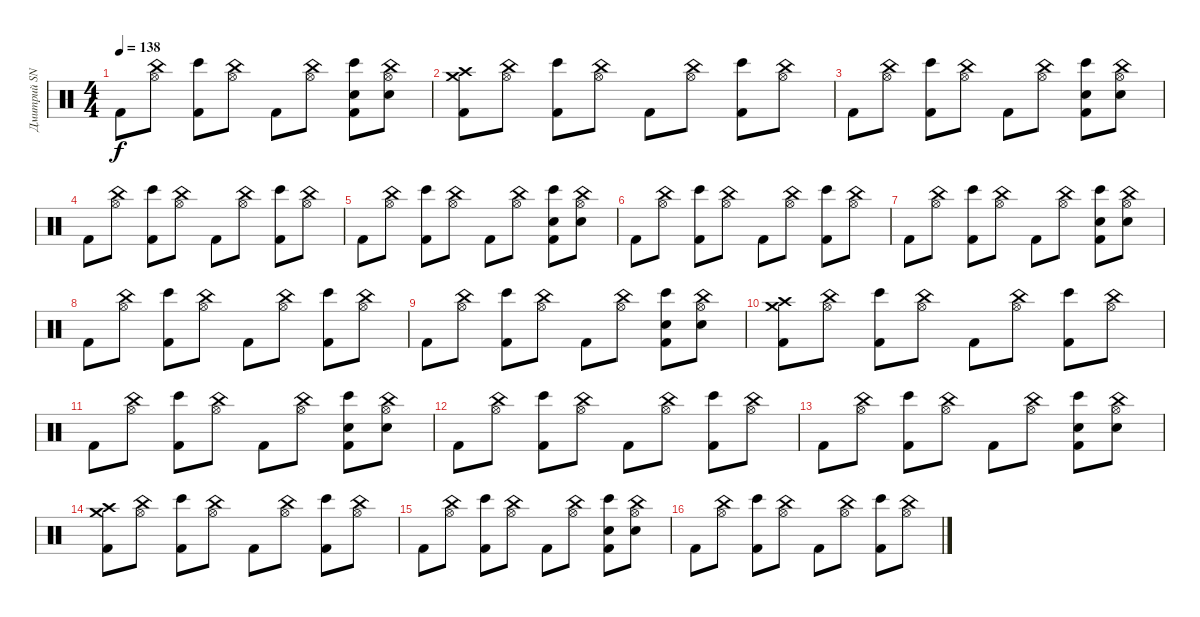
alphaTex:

\track ("Дмитрий SNAKE Хакимов (ударные)" "Дмитрий SN") {instrument percussion}
\staff {score}
\articulation defaults
\ts (4 4)
\tempo 138
\clef neutral
\ks c "Kick (hit) 2".8{dy f}
("China (hit)" "Hi-Hat (open)").8 ("Bongo High (hit)" "Kick (hit) 2").8 ("China (hit)" "Hi-Hat (open)").8 "Kick (hit) 2".8 ("China (hit)" "Hi-Hat (open)").8 ("Bongo High (hit)" "Electric Snare (hit)" "Kick (hit) 2").8 ("China (hit)" "Hi-Hat (open)" "Electric Snare (hit)").8 |
("Crash high (hit)" "Crash medium (hit)" "Kick (hit) 2").8 ("China (hit)" "Hi-Hat (open)").8 ("Bongo High (hit)" "Kick (hit) 2").8 ("China (hit)" "Hi-Hat (open)").8 "Kick (hit) 2".8 ("China (hit)" "Hi-Hat (open)").8 ("Bongo High (hit)" "Kick (hit) 2").8 ("China (hit)" "Hi-Hat (open)").8 |
"Kick (hit) 2".8 ("China (hit)" "Hi-Hat (open)").8 ("Bongo High (hit)" "Kick (hit) 2").8 ("China (hit)" "Hi-Hat (open)").8 "Kick (hit) 2".8 ("China (hit)" "Hi-Hat (open)").8 ("Bongo High (hit)" "Electric Snare (hit)" "Kick (hit) 2").8 ("China (hit)" "Hi-Hat (open)" "Electric Snare (hit)").8 |
"Kick (hit) 2".8 ("China (hit)" "Hi-Hat (open)").8 ("Bongo High (hit)" "Kick (hit) 2").8 ("China (hit)" "Hi-Hat (open)").8 "Kick (hit) 2".8 ("China (hit)" "Hi-Hat (open)").8 ("Bongo High (hit)" "Kick (hit) 2").8 ("China (hit)" "Hi-Hat (open)").8 |
"Kick (hit) 2".8 ("China (hit)" "Hi-Hat (open)").8 ("Bongo High (hit)" "Kick (hit) 2").8 ("China (hit)" "Hi-Hat (open)").8 "Kick (hit) 2".8 ("China (hit)" "Hi-Hat (open)").8 ("Bongo High (hit)" "Electric Snare (hit)" "Kick (hit) 2").8 ("China (hit)" "Hi-Hat (open)" "Electric Snare (hit)").8 |
"Kick (hit) 2".8 ("China (hit)" "Hi-Hat (open)").8 ("Bongo High (hit)" "Kick (hit) 2").8 ("China (hit)" "Hi-Hat (open)").8 "Kick (hit) 2".8 ("China (hit)" "Hi-Hat (open)").8 ("Bongo High (hit)" "Kick (hit) 2").8 ("China (hit)" "Hi-Hat (open)").8 |
"Kick (hit) 2".8 ("China (hit)" "Hi-Hat (open)").8 ("Bongo High (hit)" "Kick (hit) 2").8 ("China (hit)" "Hi-Hat (open)").8 "Kick (hit) 2".8 ("China (hit)" "Hi-Hat (open)").8 ("Bongo High (hit)" "Electric Snare (hit)" "Kick (hit) 2").8 ("China (hit)" "Hi-Hat (open)" "Electric Snare (hit)").8 |
"Kick (hit) 2".8 ("China (hit)" "Hi-Hat (open)").8 ("Bongo High (hit)" "Kick (hit) 2").8 ("China (hit)" "Hi-Hat (open)").8 "Kick (hit) 2".8 ("China (hit)" "Hi-Hat (open)").8 ("Bongo High (hit)" "Kick (hit) 2").8 ("China (hit)" "Hi-Hat (open)").8 |
"Kick (hit) 2".8 ("China (hit)" "Hi-Hat (open)").8 ("Bongo High (hit)" "Kick (hit) 2").8 ("China (hit)" "Hi-Hat (open)").8 "Kick (hit) 2".8 ("China (hit)" "Hi-Hat (open)").8 ("Bongo High (hit)" "Electric Snare (hit)" "Kick (hit) 2").8 ("China (hit)" "Hi-Hat (open)" "Electric Snare (hit)").8 |
("Crash high (hit)" "Crash medium (hit)" "Kick (hit) 2").8 ("China (hit)" "Hi-Hat (open)").8 ("Bongo High (hit)" "Kick (hit) 2").8 ("China (hit)" "Hi-Hat (open)").8 "Kick (hit) 2".8 ("China (hit)" "Hi-Hat (open)").8 ("Bongo High (hit)" "Kick (hit) 2").8 ("China (hit)" "Hi-Hat (open)").8 |
"Kick (hit) 2".8 ("China (hit)" "Hi-Hat (open)").8 ("Bongo High (hit)" "Kick (hit) 2").8 ("China (hit)" "Hi-Hat (open)").8 "Kick (hit) 2".8 ("China (hit)" "Hi-Hat (open)").8 ("Bongo High (hit)" "Electric Snare (hit)" "Kick (hit) 2").8 ("China (hit)" "Hi-Hat (open)" "Electric Snare (hit)").8 |
"Kick (hit) 2".8 ("China (hit)" "Hi-Hat (open)").8 ("Bongo High (hit)" "Kick (hit) 2").8 ("China (hit)" "Hi-Hat (open)").8 "Kick (hit) 2".8 ("China (hit)" "Hi-Hat (open)").8 ("Bongo High (hit)" "Kick (hit) 2").8 ("China (hit)" "Hi-Hat (open)").8 |
"Kick (hit) 2".8 ("China (hit)" "Hi-Hat (open)").8 ("Bongo High (hit)" "Kick (hit) 2").8 ("China (hit)" "Hi-Hat (open)").8 "Kick (hit) 2".8 ("China (hit)" "Hi-Hat (open)").8 ("Bongo High (hit)" "Electric Snare (hit)" "Kick (hit) 2").8 ("China (hit)" "Hi-Hat (open)" "Electric Snare (hit)").8 |
("Crash high (hit)" "Crash medium (hit)" "Kick (hit) 2").8 ("China (hit)" "Hi-Hat (open)").8 ("Bongo High (hit)" "Kick (hit) 2").8 ("China (hit)" "Hi-Hat (open)").8 "Kick (hit) 2".8 ("China (hit)" "Hi-Hat (open)").8 ("Bongo High (hit)" "Kick (hit) 2").8 ("China (hit)" "Hi-Hat (open)").8 |
"Kick (hit) 2".8 ("China (hit)" "Hi-Hat (open)").8 ("Bongo High (hit)" "Kick (hit) 2").8 ("China (hit)" "Hi-Hat (open)").8 "Kick (hit) 2".8 ("China (hit)" "Hi-Hat (open)").8 ("Bongo High (hit)" "Electric Snare (hit)" "Kick (hit) 2").8 ("China (hit)" "Hi-Hat (open)" "Electric Snare (hit)").8 |
"Kick (hit) 2".8 ("China (hit)" "Hi-Hat (open)").8 ("Bongo High (hit)" "Kick (hit) 2").8 ("China (hit)" "Hi-Hat (open)").8 "Kick (hit) 2".8 ("China (hit)" "Hi-Hat (open)").8 ("Bongo High (hit)" "Kick (hit) 2").8 ("China (hit)" "Hi-Hat (open)").8
